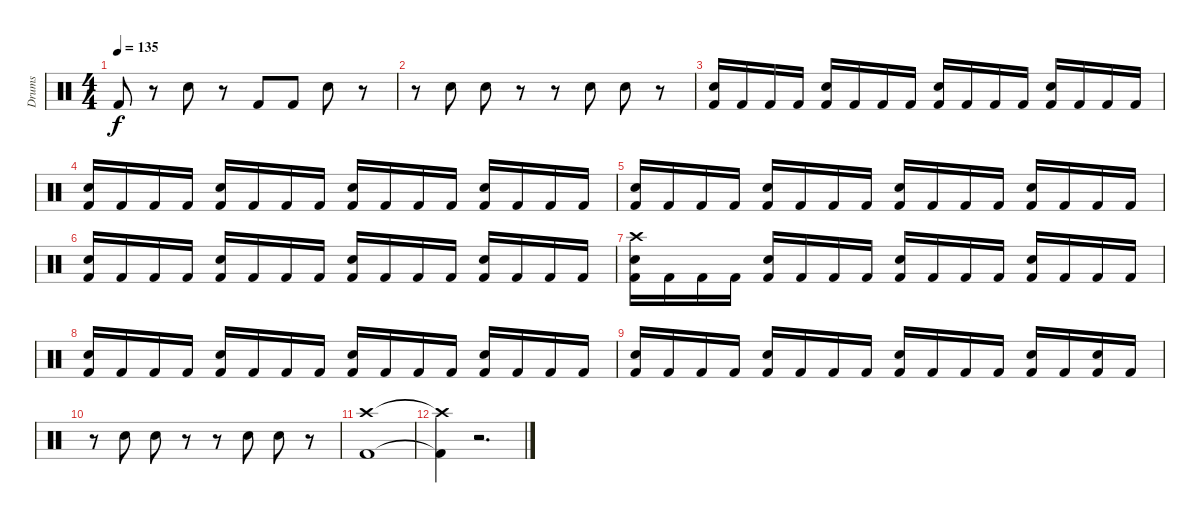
\track ("Drums" "Drums") {instrument percussion}
\staff {score}
\articulation defaults
\ts (4 4)
\tempo 135
\clef neutral
\ks c "Kick (hit) 2".8{dy f}
r.8 "Snare (hit) 2".8 r.8 "Kick (hit) 2".8 "Kick (hit) 2".8 "Snare (hit) 2".8 r.8 |
r.8 "Snare (hit) 2".8 "Snare (hit) 2".8 r.8 r.8 "Snare (hit) 2".8 "Snare (hit) 2".8 r.8 |
("Snare (hit) 2" "Kick (hit) 2").16 "Kick (hit) 2".16 "Kick (hit) 2".16 "Kick (hit) 2".16 ("Snare (hit) 2" "Kick (hit) 2").16 "Kick (hit) 2".16 "Kick (hit) 2".16 "Kick (hit) 2".16 ("Snare (hit) 2" "Kick (hit) 2").16 "Kick (hit) 2".16 "Kick (hit) 2".16 "Kick (hit) 2".16 ("Snare (hit) 2" "Kick (hit) 2").16 "Kick (hit) 2".16 "Kick (hit) 2".16 "Kick (hit) 2".16 |
("Snare (hit) 2" "Kick (hit) 2").16 "Kick (hit) 2".16 "Kick (hit) 2".16 "Kick (hit) 2".16 ("Snare (hit) 2" "Kick (hit) 2").16 "Kick (hit) 2".16 "Kick (hit) 2".16 "Kick (hit) 2".16 ("Snare (hit) 2" "Kick (hit) 2").16 "Kick (hit) 2".16 "Kick (hit) 2".16 "Kick (hit) 2".16 ("Snare (hit) 2" "Kick (hit) 2").16 "Kick (hit) 2".16 "Kick (hit) 2".16 "Kick (hit) 2".16 |
("Snare (hit) 2" "Kick (hit) 2").16 "Kick (hit) 2".16 "Kick (hit) 2".16 "Kick (hit) 2".16 ("Snare (hit) 2" "Kick (hit) 2").16 "Kick (hit) 2".16 "Kick (hit) 2".16 "Kick (hit) 2".16 ("Snare (hit) 2" "Kick (hit) 2").16 "Kick (hit) 2".16 "Kick (hit) 2".16 "Kick (hit) 2".16 ("Snare (hit) 2" "Kick (hit) 2").16 "Kick (hit) 2".16 "Kick (hit) 2".16 "Kick (hit) 2".16 |
("Snare (hit) 2" "Kick (hit) 2").16 "Kick (hit) 2".16 "Kick (hit) 2".16 "Kick (hit) 2".16 ("Snare (hit) 2" "Kick (hit) 2").16 "Kick (hit) 2".16 "Kick (hit) 2".16 "Kick (hit) 2".16 ("Snare (hit) 2" "Kick (hit) 2").16 "Kick (hit) 2".16 "Kick (hit) 2".16 "Kick (hit) 2".16 ("Snare (hit) 2" "Kick (hit) 2").16 "Kick (hit) 2".16 "Kick (hit) 2".16 "Kick (hit) 2".16 |
("Crash high (hit)" "Snare (hit) 2" "Kick (hit) 2").16 "Kick (hit) 2".16 "Kick (hit) 2".16 "Kick (hit) 2".16 ("Snare (hit) 2" "Kick (hit) 2").16 "Kick (hit) 2".16 "Kick (hit) 2".16 "Kick (hit) 2".16 ("Snare (hit) 2" "Kick (hit) 2").16 "Kick (hit) 2".16 "Kick (hit) 2".16 "Kick (hit) 2".16 ("Snare (hit) 2" "Kick (hit) 2").16 "Kick (hit) 2".16 "Kick (hit) 2".16 "Kick (hit) 2".16 |
("Snare (hit) 2" "Kick (hit) 2").16 "Kick (hit) 2".16 "Kick (hit) 2".16 "Kick (hit) 2".16 ("Snare (hit) 2" "Kick (hit) 2").16 "Kick (hit) 2".16 "Kick (hit) 2".16 "Kick (hit) 2".16 ("Snare (hit) 2" "Kick (hit) 2").16 "Kick (hit) 2".16 "Kick (hit) 2".16 "Kick (hit) 2".16 ("Snare (hit) 2" "Kick (hit) 2").16 "Kick (hit) 2".16 "Kick (hit) 2".16 "Kick (hit) 2".16 |
("Snare (hit) 2" "Kick (hit) 2").16 "Kick (hit) 2".16 "Kick (hit) 2".16 "Kick (hit) 2".16 ("Snare (hit) 2" "Kick (hit) 2").16 "Kick (hit) 2".16 "Kick (hit) 2".16 "Kick (hit) 2".16 ("Snare (hit) 2" "Kick (hit) 2").16 "Kick (hit) 2".16 "Kick (hit) 2".16 "Kick (hit) 2".16 ("Snare (hit) 2" "Kick (hit) 2").16 "Kick (hit) 2".16 ("Snare (hit) 2" "Kick (hit) 2").16 "Kick (hit) 2".16 |
r.8 "Snare (hit) 2".8 "Snare (hit) 2".8 r.8 r.8 "Snare (hit) 2".8 "Snare (hit) 2".8 r.8 |
("Crash high (hit)" "Kick (hit) 2").1 |
("Crash high (hit)"{t} "Kick (hit) 2"{t}).4 r.2{d}
